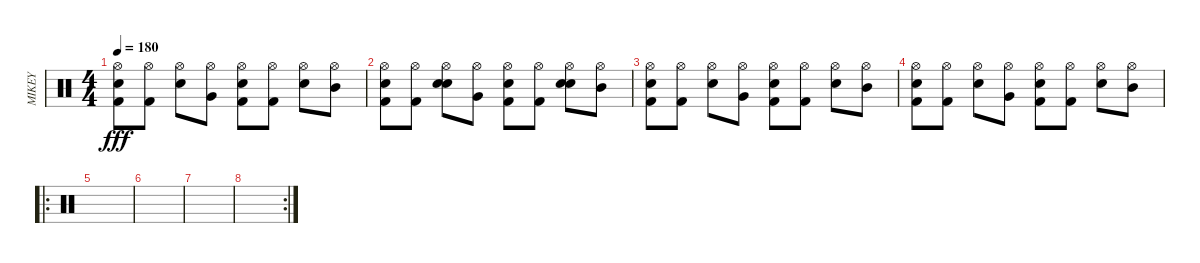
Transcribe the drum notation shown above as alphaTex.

\track ("MIKEY" "MIKEY") {instrument percussion}
\staff {score}
\articulation defaults
\ts (4 4)
\tempo 180
\clef neutral
\ks c
("Electric Snare (hit)" "Hi-Hat (open)" "Kick (hit) 2").8{dy fff} ("Hi-Hat (open)" "Kick (hit) 2").8 ("Hi-Hat (open)" "Snare (hit) 2").8 ("Hi-Hat (open)" "Very Low Tom (hit)").8 ("Electric Snare (hit)" "Hi-Hat (open)" "Kick (hit) 2").8 ("Hi-Hat (open)" "Kick (hit) 2").8 ("Hi-Hat (open)" "Snare (hit) 2").8 ("Hi-Hat (open)" "Mid Tom (hit)").8 |
("Electric Snare (hit)" "Hi-Hat (open)" "Kick (hit) 2").8 ("Hi-Hat (open)" "Kick (hit) 2").8 ("Electric Snare (hit)" "Hi-Hat (open)" "Snare (hit) 2").8 ("Hi-Hat (open)" "Very Low Tom (hit)").8 ("Electric Snare (hit)" "Hi-Hat (open)" "Kick (hit) 2").8 ("Hi-Hat (open)" "Kick (hit) 2").8 ("Electric Snare (hit)" "Hi-Hat (open)" "Snare (hit) 2").8 ("Hi-Hat (open)" "Mid Tom (hit)").8 |
("Electric Snare (hit)" "Hi-Hat (open)" "Kick (hit) 2").8 ("Hi-Hat (open)" "Kick (hit) 2").8 ("Hi-Hat (open)" "Snare (hit) 2").8 ("Hi-Hat (open)" "Very Low Tom (hit)").8 ("Electric Snare (hit)" "Hi-Hat (open)" "Kick (hit) 2").8 ("Hi-Hat (open)" "Kick (hit) 2").8 ("Hi-Hat (open)" "Snare (hit) 2").8 ("Hi-Hat (open)" "Mid Tom (hit)").8 |
("Electric Snare (hit)" "Hi-Hat (open)" "Kick (hit) 2").8 ("Hi-Hat (open)" "Kick (hit) 2").8 ("Hi-Hat (open)" "Snare (hit) 2").8 ("Hi-Hat (open)" "Very Low Tom (hit)").8 ("Electric Snare (hit)" "Hi-Hat (open)" "Kick (hit) 2").8 ("Hi-Hat (open)" "Kick (hit) 2").8 ("Hi-Hat (open)" "Snare (hit) 2").8 ("Hi-Hat (open)" "Mid Tom (hit)").8 |
\ro
|
|
|
\rc 2
